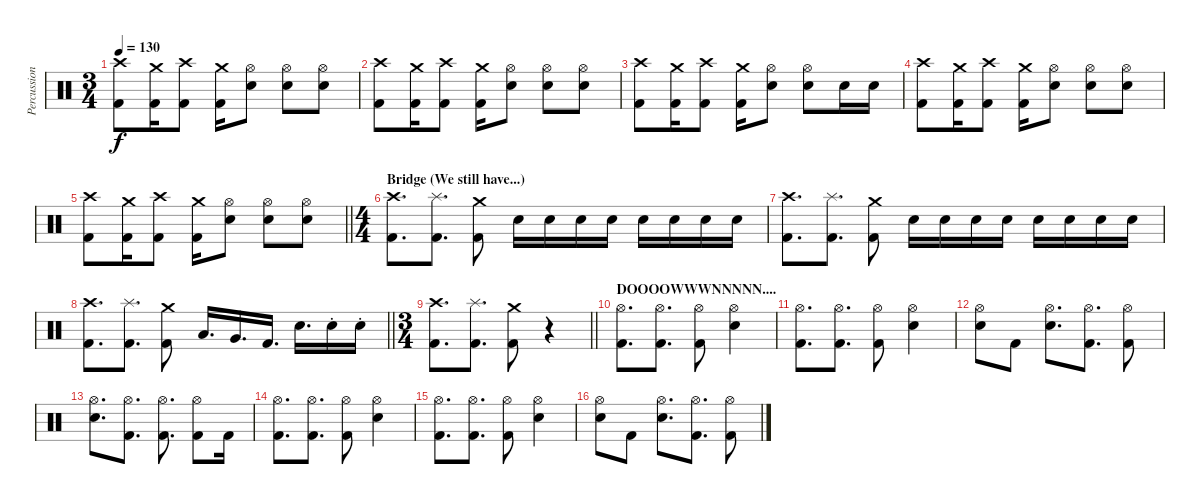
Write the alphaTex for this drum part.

\track ("Percussion" "Percussion") {instrument percussion}
\staff {score}
\articulation defaults
\ts (3 4)
\tempo 130
\clef neutral
\ks c
("Crash high (hit)" "Kick (hit) 2").8{dy f} ("Crash medium (hit)" "Kick (hit) 2").16 ("Crash high (hit)" "Kick (hit) 2").8 ("Crash medium (hit)" "Kick (hit) 2").16 ("Hi-Hat (open)" "Snare (hit) 2").8 ("Hi-Hat (open)" "Snare (hit) 2").8 ("Hi-Hat (open)" "Snare (hit) 2").8 |
("Crash high (hit)" "Kick (hit) 2").8 ("Crash medium (hit)" "Kick (hit) 2").16 ("Crash high (hit)" "Kick (hit) 2").8 ("Crash medium (hit)" "Kick (hit) 2").16 ("Hi-Hat (open)" "Snare (hit) 2").8 ("Hi-Hat (open)" "Snare (hit) 2").8 ("Hi-Hat (open)" "Snare (hit) 2").8 |
("Crash high (hit)" "Kick (hit) 2").8 ("Crash medium (hit)" "Kick (hit) 2").16 ("Crash high (hit)" "Kick (hit) 2").8 ("Crash medium (hit)" "Kick (hit) 2").16 ("Hi-Hat (open)" "Snare (hit) 2").8 ("Hi-Hat (open)" "Snare (hit) 2").8 "Snare (hit) 2".16 "Snare (hit) 2".16 |
("Crash high (hit)" "Kick (hit) 2").8 ("Crash medium (hit)" "Kick (hit) 2").16 ("Crash high (hit)" "Kick (hit) 2").8 ("Crash medium (hit)" "Kick (hit) 2").16 ("Hi-Hat (open)" "Snare (hit) 2").8 ("Hi-Hat (open)" "Snare (hit) 2").8 ("Hi-Hat (open)" "Snare (hit) 2").8 |
\barLineRight lightlight
("Crash high (hit)" "Kick (hit) 2").8 ("Crash medium (hit)" "Kick (hit) 2").16 ("Crash high (hit)" "Kick (hit) 2").8 ("Crash medium (hit)" "Kick (hit) 2").16 ("Hi-Hat (open)" "Snare (hit) 2").8 ("Hi-Hat (open)" "Snare (hit) 2").8 ("Hi-Hat (open)" "Snare (hit) 2").8 |
\ts (4 4)
\section ("" "Bridge (We still have...)")
("Crash high (hit)" "Kick (hit) 2").8{d} ("Splash (hit)" "Kick (hit) 2").8{d} ("Crash medium (hit)" "Kick (hit) 2").8 "Snare (hit) 2".16 "Snare (hit) 2".16 "Snare (hit) 2".16 "Snare (hit) 2".16 "Snare (hit) 2".16 "Snare (hit) 2".16 "Snare (hit) 2".16 "Snare (hit) 2".16 |
("Crash high (hit)" "Kick (hit) 2").8{d} ("Splash (hit)" "Kick (hit) 2").8{d} ("Crash medium (hit)" "Kick (hit) 2").8 "Snare (hit) 2".16 "Snare (hit) 2".16 "Snare (hit) 2".16 "Snare (hit) 2".16 "Snare (hit) 2".16 "Snare (hit) 2".16 "Snare (hit) 2".16 "Snare (hit) 2".16 |
\barLineRight lightlight
("Crash high (hit)" "Kick (hit) 2").8{d} ("Splash (hit)" "Kick (hit) 2").8{d} ("Crash medium (hit)" "Kick (hit) 2").8 "Low Tom (hit)".16{d} "Very Low Tom (hit)".16{d} "Kick (hit) 2".16{d} "Snare (hit) 2".16{d} "Snare (hit) 2"{st}.16 "Snare (hit) 2"{st}.16 |
\ts (3 4)
\section ("" "")
\barLineRight lightlight
("Crash high (hit)" "Kick (hit) 2").8{d} ("Splash (hit)" "Kick (hit) 2").8{d} ("Crash medium (hit)" "Kick (hit) 2").8 r.4 |
\section ("" "DOOOOWWWNNNNN....")
("Hi-Hat (open)" "Kick (hit) 2").8{d} ("Hi-Hat (open)" "Kick (hit) 2").8{d} ("Hi-Hat (open)" "Kick (hit) 2").8 ("Hi-Hat (open)" "Snare (hit) 2").4 |
("Hi-Hat (open)" "Kick (hit) 2").8{d} ("Hi-Hat (open)" "Kick (hit) 2").8{d} ("Hi-Hat (open)" "Kick (hit) 2").8 ("Hi-Hat (open)" "Snare (hit) 2").4 |
("Hi-Hat (open)" "Snare (hit) 2").8 "Kick (hit) 2".8 ("Hi-Hat (open)" "Snare (hit) 2").8{d} ("Hi-Hat (open)" "Kick (hit) 2").8{d} ("Hi-Hat (open)" "Kick (hit) 2").8 |
("Hi-Hat (open)" "Snare (hit) 2").8{d} ("Hi-Hat (open)" "Kick (hit) 2").8{d} ("Hi-Hat (open)" "Kick (hit) 2").8{d} ("Hi-Hat (open)" "Kick (hit) 2").8 "Kick (hit) 2".16 |
("Hi-Hat (open)" "Kick (hit) 2").8{d} ("Hi-Hat (open)" "Kick (hit) 2").8{d} ("Hi-Hat (open)" "Kick (hit) 2").8 ("Hi-Hat (open)" "Snare (hit) 2").4 |
("Hi-Hat (open)" "Kick (hit) 2").8{d} ("Hi-Hat (open)" "Kick (hit) 2").8{d} ("Hi-Hat (open)" "Kick (hit) 2").8 ("Hi-Hat (open)" "Snare (hit) 2").4 |
("Hi-Hat (open)" "Snare (hit) 2").8 "Kick (hit) 2".8 ("Hi-Hat (open)" "Snare (hit) 2").8{d} ("Hi-Hat (open)" "Kick (hit) 2").8{d} ("Hi-Hat (open)" "Kick (hit) 2").8
